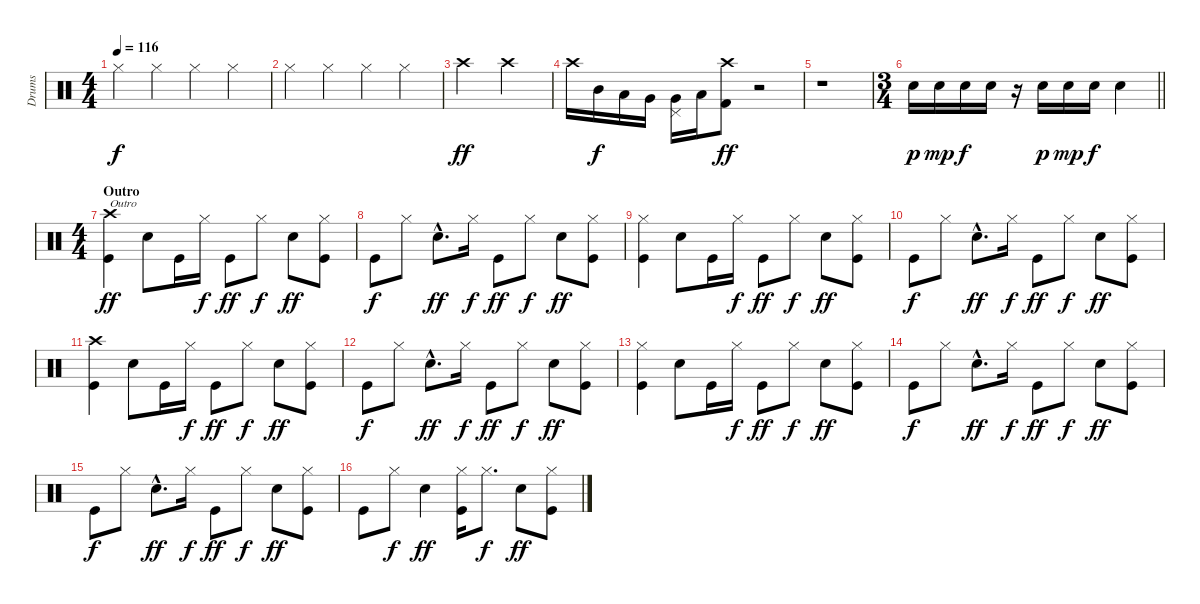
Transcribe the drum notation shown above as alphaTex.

\track ("Drums" "Drums") {instrument percussion}
\staff {score}
\articulation defaults
\ts (4 4)
\tempo 116
\clef neutral
\ks c "Hi-Hat (closed)".4{dy f} "Hi-Hat (closed)".4 "Hi-Hat (closed)".4 "Hi-Hat (closed)".4
|
"Hi-Hat (closed)".4 "Hi-Hat (closed)".4 "Hi-Hat (closed)".4 "Hi-Hat (closed)".4 |
"Crash high (hit)".2{dy ff} "Crash high (hit)".2 |
"Crash high (hit)".16 "Mid Tom (hit)".16{dy f} "Low Tom (hit)".16 "Very Low Tom (hit)".16 ("Pedal Hi-Hat (hit)" "Very Low Tom (hit)").16 "Low Floor Tom (hit)".16 ("Crash high (hit)" "Kick (hit) 2").8{dy ff} r.2 |
r.1 |
\ts (3 4)
\barLineRight lightlight "Snare (hit) 2".16{dy p} "Snare (hit) 2".16{dy mp} "Snare (hit) 2".16{dy f} "Snare (hit) 2".16
r.16 "Snare (hit) 2".16{dy p} "Snare (hit) 2".16{dy mp} "Snare (hit) 2".16{dy f} "Snare (hit) 2".4 |
\ts (4 4)
\section ("" "Outro")
("Crash high (hit)" "Kick (hit)").4{txt "Outro" dy ff} "Snare (hit) 2".8 "Kick (hit)".16 "Hi-Hat (closed)".16{dy f} "Kick (hit)".8{dy ff} "Hi-Hat (closed)".8{dy f} "Snare (hit) 2".8{dy ff} ("Hi-Hat (closed)" "Kick (hit)").8 |
"Kick (hit)".8{dy f} "Hi-Hat (closed)".8 "Snare (hit) 2"{hac}.8{d dy ff} "Hi-Hat (closed)".16{dy f} "Kick (hit)".8{dy ff} "Hi-Hat (closed)".8{dy f} "Snare (hit) 2".8{dy ff} ("Hi-Hat (closed)" "Kick (hit)").8 |
("Hi-Hat (closed)" "Kick (hit)").4 "Snare (hit) 2".8 "Kick (hit)".16 "Hi-Hat (closed)".16{dy f} "Kick (hit)".8{dy ff} "Hi-Hat (closed)".8{dy f} "Snare (hit) 2".8{dy ff} ("Hi-Hat (closed)" "Kick (hit)").8 |
"Kick (hit)".8{dy f} "Hi-Hat (closed)".8 "Snare (hit) 2"{hac}.8{d dy ff} "Hi-Hat (closed)".16{dy f} "Kick (hit)".8{dy ff} "Hi-Hat (closed)".8{dy f} "Snare (hit) 2".8{dy ff} ("Hi-Hat (closed)" "Kick (hit)").8 |
("Crash high (hit)" "Kick (hit)").4 "Snare (hit) 2".8 "Kick (hit)".16 "Hi-Hat (closed)".16{dy f} "Kick (hit)".8{dy ff} "Hi-Hat (closed)".8{dy f} "Snare (hit) 2".8{dy ff} ("Hi-Hat (closed)" "Kick (hit)").8 |
"Kick (hit)".8{dy f} "Hi-Hat (closed)".8 "Snare (hit) 2"{hac}.8{d dy ff} "Hi-Hat (closed)".16{dy f} "Kick (hit)".8{dy ff} "Hi-Hat (closed)".8{dy f} "Snare (hit) 2".8{dy ff} ("Hi-Hat (closed)" "Kick (hit)").8 |
("Hi-Hat (closed)" "Kick (hit)").4 "Snare (hit) 2".8 "Kick (hit)".16 "Hi-Hat (closed)".16{dy f} "Kick (hit)".8{dy ff} "Hi-Hat (closed)".8{dy f} "Snare (hit) 2".8{dy ff} ("Hi-Hat (closed)" "Kick (hit)").8 |
"Kick (hit)".8{dy f} "Hi-Hat (closed)".8 "Snare (hit) 2"{hac}.8{d dy ff} "Hi-Hat (closed)".16{dy f} "Kick (hit)".8{dy ff} "Hi-Hat (closed)".8{dy f} "Snare (hit) 2".8{dy ff} ("Hi-Hat (closed)" "Kick (hit)").8 |
"Kick (hit)".8{dy f} "Hi-Hat (closed)".8 "Snare (hit) 2"{hac}.8{d dy ff} "Hi-Hat (closed)".16{dy f} "Kick (hit)".8{dy ff} "Hi-Hat (closed)".8{dy f} "Snare (hit) 2".8{dy ff} ("Hi-Hat (closed)" "Kick (hit)").8 |
"Kick (hit)".8 "Hi-Hat (closed)".8{dy f} "Snare (hit) 2".4{dy ff} ("Hi-Hat (closed)" "Kick (hit)").16 "Hi-Hat (closed)".8{d dy f} "Snare (hit) 2".8{dy ff} ("Hi-Hat (closed)" "Kick (hit)").8
